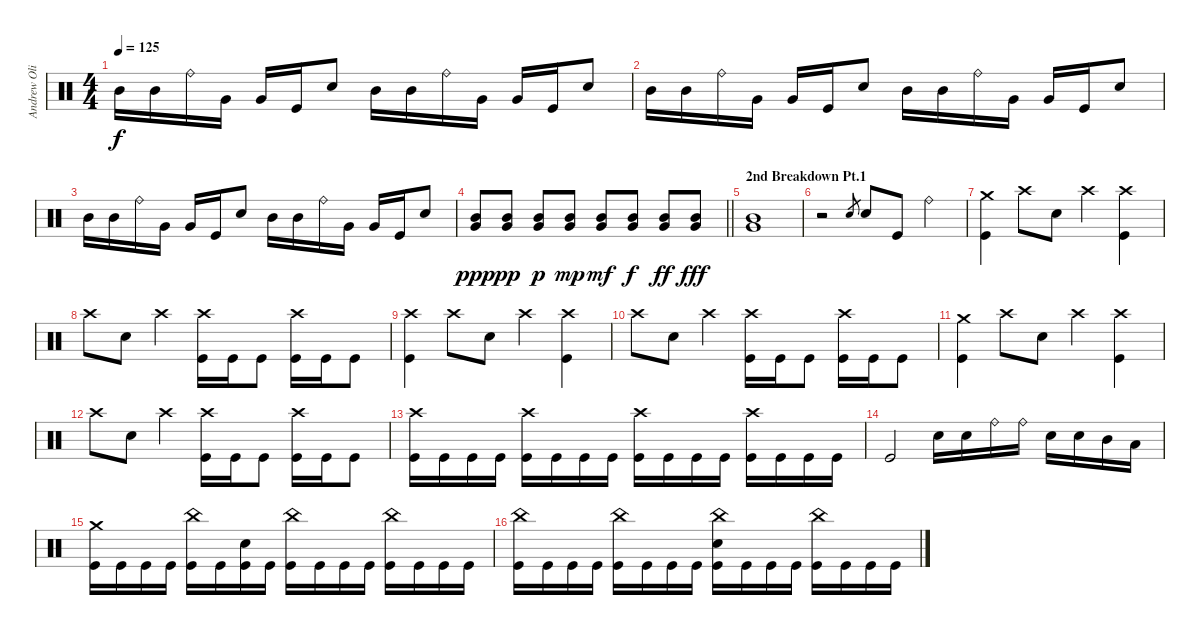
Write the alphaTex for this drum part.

\track ("Andrew Oliver" "Andrew Oli") {instrument percussion}
\staff {score}
\articulation defaults
\ts (4 4)
\tempo 125
\clef neutral
\ks c "Mid Tom (hit)".16{dy f} "Mid Tom (hit)".16 "Ride (bell)".16 "Very Low Tom (hit)".16 "Very Low Tom (hit)".16 "Kick (hit)".16 "Electric Snare (hit)".8 "Mid Tom (hit)".16 "Mid Tom (hit)".16 "Ride (bell)".16 "Very Low Tom (hit)".16 "Very Low Tom (hit)".16 "Kick (hit)".16 "Electric Snare (hit)".8
|
"Mid Tom (hit)".16 "Mid Tom (hit)".16 "Ride (bell)".16 "Very Low Tom (hit)".16 "Very Low Tom (hit)".16 "Kick (hit)".16 "Electric Snare (hit)".8 "Mid Tom (hit)".16 "Mid Tom (hit)".16 "Ride (bell)".16 "Very Low Tom (hit)".16 "Very Low Tom (hit)".16 "Kick (hit)".16 "Electric Snare (hit)".8 |
"Mid Tom (hit)".16 "Mid Tom (hit)".16 "Ride (bell)".16 "Very Low Tom (hit)".16 "Very Low Tom (hit)".16 "Kick (hit)".16 "Electric Snare (hit)".8 "Mid Tom (hit)".16 "Mid Tom (hit)".16 "Ride (bell)".16 "Very Low Tom (hit)".16 "Very Low Tom (hit)".16 "Kick (hit)".16 "Electric Snare (hit)".8 |
\barLineRight lightlight
("Very Low Tom (hit)" "Mid Tom (hit)").8{dy ppp} ("Very Low Tom (hit)" "Mid Tom (hit)").8{dy pp} ("Very Low Tom (hit)" "Mid Tom (hit)").8{dy p} ("Very Low Tom (hit)" "Mid Tom (hit)").8{dy mp} ("Very Low Tom (hit)" "Mid Tom (hit)").8{dy mf} ("Very Low Tom (hit)" "Mid Tom (hit)").8{dy f} ("Very Low Tom (hit)" "Mid Tom (hit)").8{dy ff} ("Very Low Tom (hit)" "Mid Tom (hit)").8{dy fff} |
\section ("" "2nd Breakdown Pt.1")
("Very Low Tom (hit)" "Mid Tom (hit)").1 |
r.2 "Electric Snare (hit)".8{gr} "Electric Snare (hit)".8 "Kick (hit)".8 "Ride (bell)".4 |
("Crash medium (hit)" "Kick (hit)").4 "Crash high (hit)".8 "Electric Snare (hit)".8 "Crash high (hit)".4 ("Crash high (hit)" "Kick (hit)").4 |
"Crash high (hit)".8 "Electric Snare (hit)".8 "Crash high (hit)".4 ("Crash high (hit)" "Kick (hit)").16 "Kick (hit)".16 "Kick (hit)".8 ("Crash high (hit)" "Kick (hit)").16 "Kick (hit)".16 "Kick (hit)".8 |
("Crash high (hit)" "Kick (hit)").4 "Crash high (hit)".8 "Electric Snare (hit)".8 "Crash high (hit)".4 ("Crash high (hit)" "Kick (hit)").4 |
"Crash high (hit)".8 "Electric Snare (hit)".8 "Crash high (hit)".4 ("Crash high (hit)" "Kick (hit)").16 "Kick (hit)".16 "Kick (hit)".8 ("Crash high (hit)" "Kick (hit)").16 "Kick (hit)".16 "Kick (hit)".8 |
("Crash medium (hit)" "Kick (hit)").4 "Crash high (hit)".8 "Electric Snare (hit)".8 "Crash high (hit)".4 ("Crash high (hit)" "Kick (hit)").4 |
"Crash high (hit)".8 "Electric Snare (hit)".8 "Crash high (hit)".4 ("Crash high (hit)" "Kick (hit)").16 "Kick (hit)".16 "Kick (hit)".8 ("Crash high (hit)" "Kick (hit)").16 "Kick (hit)".16 "Kick (hit)".8 |
("Crash high (hit)" "Kick (hit)").16 "Kick (hit)".16 "Kick (hit)".16 "Kick (hit)".16 ("Crash high (hit)" "Kick (hit)").16 "Kick (hit)".16 "Kick (hit)".16 "Kick (hit)".16 ("Crash high (hit)" "Kick (hit)").16 "Kick (hit)".16 "Kick (hit)".16 "Kick (hit)".16 ("Crash high (hit)" "Kick (hit)").16 "Kick (hit)".16 "Kick (hit)".16 "Kick (hit)".16 |
"Kick (hit)".2 "Electric Snare (hit)".16 "Electric Snare (hit)".16 "Ride (bell)".16 "Ride (bell)".16 "Electric Snare (hit)".16 "Electric Snare (hit)".16 "Mid Tom (hit)".16 "Low Floor Tom (hit)".16 |
("Crash medium (hit)" "Kick (hit)").16 "Kick (hit)".16 "Kick (hit)".16 "Kick (hit)".16 ("China (hit)" "Kick (hit)").16 "Kick (hit)".16 ("Electric Snare (hit)" "Kick (hit)").16 "Kick (hit)".16 ("China (hit)" "Kick (hit)").16 "Kick (hit)".16 "Kick (hit)".16 "Kick (hit)".16 ("China (hit)" "Kick (hit)").16 "Kick (hit)".16 "Kick (hit)".16 "Kick (hit)".16 |
("China (hit)" "Kick (hit)").16 "Kick (hit)".16 "Kick (hit)".16 "Kick (hit)".16 ("China (hit)" "Kick (hit)").16 "Kick (hit)".16 "Kick (hit)".16 "Kick (hit)".16 ("China (hit)" "Electric Snare (hit)" "Kick (hit)").16 "Kick (hit)".16 "Kick (hit)".16 "Kick (hit)".16 ("China (hit)" "Kick (hit)").16 "Kick (hit)".16 "Kick (hit)".16 "Kick (hit)".16
